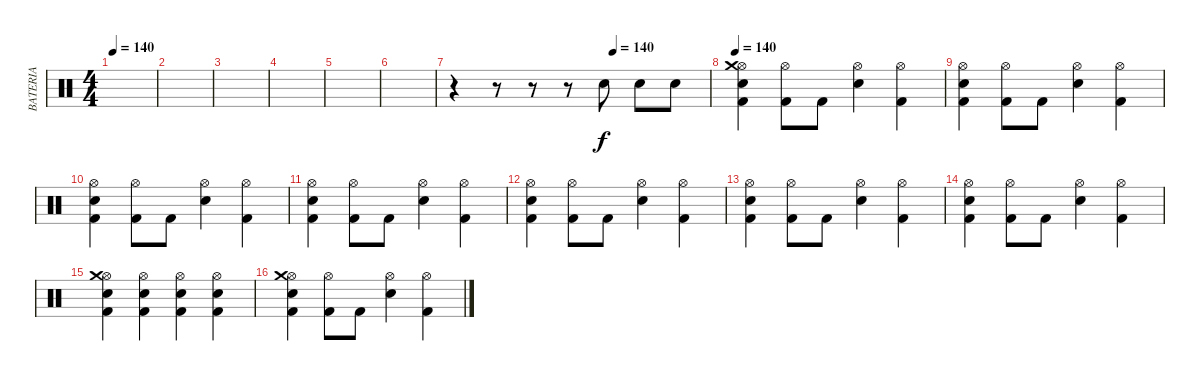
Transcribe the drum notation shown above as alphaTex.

\track ("BATERIA" "BATERIA") {instrument percussion}
\staff {score}
\articulation defaults
\ts (4 4)
\tempo 140
\tempo 120
\tempo 140
\clef neutral
\ks c
|
|
|
|
|
|
\tempo (140 0.625)
r.4 r.8 r.8 r.8 "Electric Snare (hit)".8 "Electric Snare (hit)".8 "Electric Snare (hit)".8 |
\tempo 140
("Kick (hit) 2" "Electric Snare (hit)" "Hi-Hat (open)" "Crash medium (hit)").4 ("Kick (hit) 2" "Hi-Hat (open)").8 "Kick (hit) 2".8 ("Electric Snare (hit)" "Hi-Hat (open)").4 ("Kick (hit) 2" "Hi-Hat (open)").4 |
("Kick (hit) 2" "Electric Snare (hit)" "Hi-Hat (open)").4 ("Kick (hit) 2" "Hi-Hat (open)").8 "Kick (hit) 2".8 ("Electric Snare (hit)" "Hi-Hat (open)").4 ("Kick (hit) 2" "Hi-Hat (open)").4 |
("Kick (hit) 2" "Electric Snare (hit)" "Hi-Hat (open)").4 ("Kick (hit) 2" "Hi-Hat (open)").8 "Kick (hit) 2".8 ("Electric Snare (hit)" "Hi-Hat (open)").4 ("Kick (hit) 2" "Hi-Hat (open)").4 |
("Kick (hit) 2" "Electric Snare (hit)" "Hi-Hat (open)").4 ("Kick (hit) 2" "Hi-Hat (open)").8 "Kick (hit) 2".8 ("Electric Snare (hit)" "Hi-Hat (open)").4 ("Kick (hit) 2" "Hi-Hat (open)").4 |
("Kick (hit) 2" "Electric Snare (hit)" "Hi-Hat (open)").4 ("Kick (hit) 2" "Hi-Hat (open)").8 "Kick (hit) 2".8 ("Electric Snare (hit)" "Hi-Hat (open)").4 ("Kick (hit) 2" "Hi-Hat (open)").4 |
("Kick (hit) 2" "Electric Snare (hit)" "Hi-Hat (open)").4 ("Kick (hit) 2" "Hi-Hat (open)").8 "Kick (hit) 2".8 ("Electric Snare (hit)" "Hi-Hat (open)").4 ("Kick (hit) 2" "Hi-Hat (open)").4 |
("Kick (hit) 2" "Electric Snare (hit)" "Hi-Hat (open)").4 ("Kick (hit) 2" "Hi-Hat (open)").8 "Kick (hit) 2".8 ("Electric Snare (hit)" "Hi-Hat (open)").4 ("Kick (hit) 2" "Hi-Hat (open)").4 |
("Kick (hit) 2" "Electric Snare (hit)" "Hi-Hat (open)" "Crash medium (hit)").4 ("Kick (hit) 2" "Electric Snare (hit)" "Hi-Hat (open)").4 ("Kick (hit) 2" "Electric Snare (hit)" "Hi-Hat (open)").4 ("Kick (hit) 2" "Electric Snare (hit)" "Hi-Hat (open)").4 |
("Kick (hit) 2" "Electric Snare (hit)" "Hi-Hat (open)" "Crash medium (hit)").4 ("Kick (hit) 2" "Hi-Hat (open)").8 "Kick (hit) 2".8 ("Electric Snare (hit)" "Hi-Hat (open)").4 ("Kick (hit) 2" "Hi-Hat (open)").4
